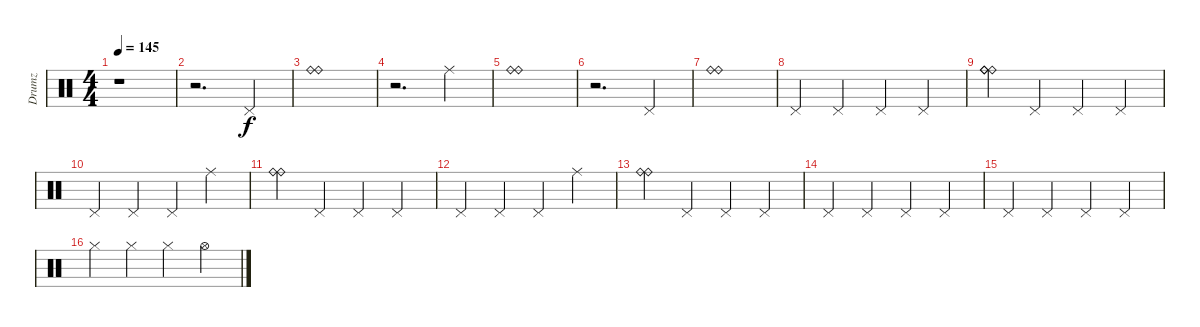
\track ("Drumz" "Drumz") {instrument percussion}
\staff {score}
\articulation defaults
\ts (4 4)
\tempo 145
\clef neutral
\ks c
r.1{dy f} |
r.2{d} "Pedal Hi-Hat (hit)".4 |
("Ride (bell)" "Ride (bell)").1 |
r.2{d} "Ride (middle)".4 |
("Ride (bell)" "Ride (bell)").1 |
r.2{d} "Pedal Hi-Hat (hit)".4 |
("Ride (bell)" "Ride (bell)").1 |
"Pedal Hi-Hat (hit)".4 "Pedal Hi-Hat (hit)".4 "Pedal Hi-Hat (hit)".4 "Pedal Hi-Hat (hit)".4 |
("Ride (bell)" "Ride (bell)" "Ride (bell)").4 "Pedal Hi-Hat (hit)".4 "Pedal Hi-Hat (hit)".4 "Pedal Hi-Hat (hit)".4 |
"Pedal Hi-Hat (hit)".4 "Pedal Hi-Hat (hit)".4 "Pedal Hi-Hat (hit)".4 "Ride (middle)".4 |
("Ride (bell)" "Ride (bell)").4 "Pedal Hi-Hat (hit)".4 "Pedal Hi-Hat (hit)".4 "Pedal Hi-Hat (hit)".4 |
"Pedal Hi-Hat (hit)".4 "Pedal Hi-Hat (hit)".4 "Pedal Hi-Hat (hit)".4 "Ride (middle)".4 |
("Ride (bell)" "Ride (bell)").4 "Pedal Hi-Hat (hit)".4 "Pedal Hi-Hat (hit)".4 "Pedal Hi-Hat (hit)".4 |
"Pedal Hi-Hat (hit)".4 "Pedal Hi-Hat (hit)".4 "Pedal Hi-Hat (hit)".4 "Pedal Hi-Hat (hit)".4 |
"Pedal Hi-Hat (hit)".4 "Pedal Hi-Hat (hit)".4 "Pedal Hi-Hat (hit)".4 "Pedal Hi-Hat (hit)".4 |
"Hi-Hat (closed)".4 "Hi-Hat (closed)".4 "Hi-Hat (closed)".4 "Hi-Hat (open)".4
